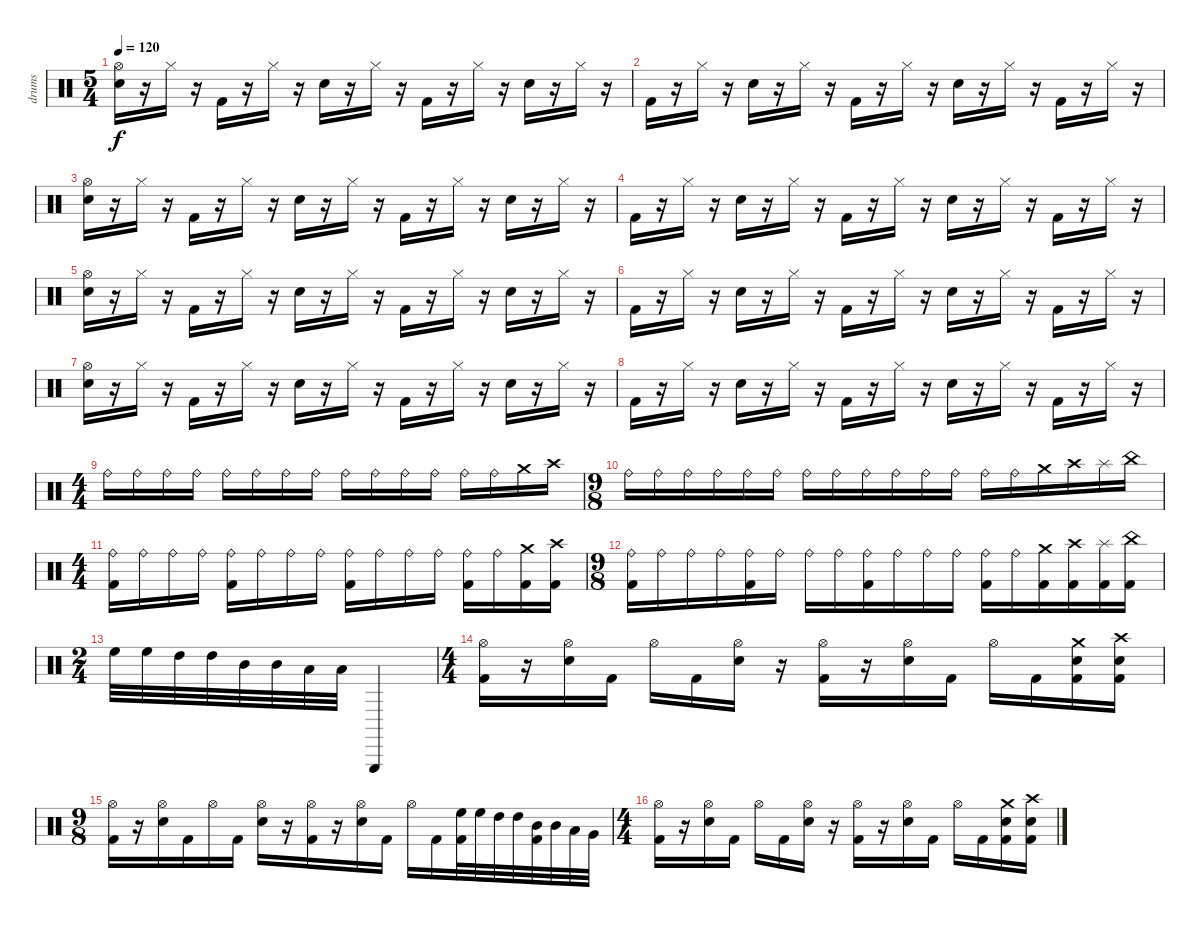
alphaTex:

\track ("drums" "drums") {instrument percussion}
\staff {score}
\articulation defaults
\ts (5 4)
\tempo 120
\clef neutral
\ks c
("Hi-Hat (open)" "Snare (hit) 2").16{dy f} r.16 "Hi-Hat (closed)".16 r.16 "Kick (hit) 2".16 r.16 "Hi-Hat (closed)".16 r.16 "Snare (hit) 2".16 r.16 "Hi-Hat (closed)".16 r.16 "Kick (hit) 2".16 r.16 "Hi-Hat (closed)".16 r.16 "Snare (hit) 2".16 r.16 "Hi-Hat (closed)".16 r.16 |
"Kick (hit) 2".16 r.16 "Hi-Hat (closed)".16 r.16 "Snare (hit) 2".16 r.16 "Hi-Hat (closed)".16 r.16 "Kick (hit) 2".16 r.16 "Hi-Hat (closed)".16 r.16 "Snare (hit) 2".16 r.16 "Hi-Hat (closed)".16 r.16 "Kick (hit) 2".16 r.16 "Hi-Hat (closed)".16 r.16 |
("Hi-Hat (open)" "Snare (hit) 2").16 r.16 "Hi-Hat (closed)".16 r.16 "Kick (hit) 2".16 r.16 "Hi-Hat (closed)".16 r.16 "Snare (hit) 2".16 r.16 "Hi-Hat (closed)".16 r.16 "Kick (hit) 2".16 r.16 "Hi-Hat (closed)".16 r.16 "Snare (hit) 2".16 r.16 "Hi-Hat (closed)".16 r.16 |
"Kick (hit) 2".16 r.16 "Hi-Hat (closed)".16 r.16 "Snare (hit) 2".16 r.16 "Hi-Hat (closed)".16 r.16 "Kick (hit) 2".16 r.16 "Hi-Hat (closed)".16 r.16 "Snare (hit) 2".16 r.16 "Hi-Hat (closed)".16 r.16 "Kick (hit) 2".16 r.16 "Hi-Hat (closed)".16 r.16 |
("Hi-Hat (open)" "Snare (hit) 2").16 r.16 "Hi-Hat (closed)".16 r.16 "Kick (hit) 2".16 r.16 "Hi-Hat (closed)".16 r.16 "Snare (hit) 2".16 r.16 "Hi-Hat (closed)".16 r.16 "Kick (hit) 2".16 r.16 "Hi-Hat (closed)".16 r.16 "Snare (hit) 2".16 r.16 "Hi-Hat (closed)".16 r.16 |
"Kick (hit) 2".16 r.16 "Hi-Hat (closed)".16 r.16 "Snare (hit) 2".16 r.16 "Hi-Hat (closed)".16 r.16 "Kick (hit) 2".16 r.16 "Hi-Hat (closed)".16 r.16 "Snare (hit) 2".16 r.16 "Hi-Hat (closed)".16 r.16 "Kick (hit) 2".16 r.16 "Hi-Hat (closed)".16 r.16 |
("Hi-Hat (open)" "Snare (hit) 2").16 r.16 "Hi-Hat (closed)".16 r.16 "Kick (hit) 2".16 r.16 "Hi-Hat (closed)".16 r.16 "Snare (hit) 2".16 r.16 "Hi-Hat (closed)".16 r.16 "Kick (hit) 2".16 r.16 "Hi-Hat (closed)".16 r.16 "Snare (hit) 2".16 r.16 "Hi-Hat (closed)".16 r.16 |
"Kick (hit) 2".16 r.16 "Hi-Hat (closed)".16 r.16 "Snare (hit) 2".16 r.16 "Hi-Hat (closed)".16 r.16 "Kick (hit) 2".16 r.16 "Hi-Hat (closed)".16 r.16 "Snare (hit) 2".16 r.16 "Hi-Hat (closed)".16 r.16 "Kick (hit) 2".16 r.16 "Hi-Hat (closed)".16 r.16 |
\ts (4 4)
"Ride (bell)".16 "Ride (bell)".16 "Ride (bell)".16 "Ride (bell)".16 "Ride (bell)".16 "Ride (bell)".16 "Ride (bell)".16 "Ride (bell)".16 "Ride (bell)".16 "Ride (bell)".16 "Ride (bell)".16 "Ride (bell)".16 "Ride (bell)".16 "Ride (bell)".16 "Crash medium (hit)".16 "Crash high (hit)".16 |
\ts (9 8)
"Ride (bell)".16 "Ride (bell)".16 "Ride (bell)".16 "Ride (bell)".16 "Ride (bell)".16 "Ride (bell)".16 "Ride (bell)".16 "Ride (bell)".16 "Ride (bell)".16 "Ride (bell)".16 "Ride (bell)".16 "Ride (bell)".16 "Ride (bell)".16 "Ride (bell)".16 "Crash medium (hit)".16 "Crash high (hit)".16 "Splash (hit)".16 "China (hit)".16 |
\ts (4 4)
("Ride (bell)" "Kick (hit) 2").16 "Ride (bell)".16 "Ride (bell)".16 "Ride (bell)".16 ("Ride (bell)" "Kick (hit) 2").16 "Ride (bell)".16 "Ride (bell)".16 "Ride (bell)".16 ("Ride (bell)" "Kick (hit) 2").16 "Ride (bell)".16 "Ride (bell)".16 "Ride (bell)".16 ("Ride (bell)" "Kick (hit) 2").16 "Ride (bell)".16 ("Crash medium (hit)" "Kick (hit) 2").16 ("Crash high (hit)" "Kick (hit) 2").16 |
\ts (9 8)
("Ride (bell)" "Kick (hit) 2").16 "Ride (bell)".16 "Ride (bell)".16 "Ride (bell)".16 ("Ride (bell)" "Kick (hit) 2").16 "Ride (bell)".16 "Ride (bell)".16 "Ride (bell)".16 ("Ride (bell)" "Kick (hit) 2").16 "Ride (bell)".16 "Ride (bell)".16 "Ride (bell)".16 ("Ride (bell)" "Kick (hit) 2").16 "Ride (bell)".16 ("Crash medium (hit)" "Kick (hit) 2").16 ("Crash high (hit)" "Kick (hit) 2").16 ("Splash (hit)" "Kick (hit) 2").16 ("China (hit)" "Kick (hit) 2").16 |
\ts (2 4)
"High Floor Tom (hit)".32 "High Floor Tom (hit)".32 "High Tom (hit)".32 "High Tom (hit)".32 "Mid Tom (hit)".32 "Mid Tom (hit)".32 "Low Tom (hit)".32 "Low Tom (hit)".32 "Triangle (hit)".4 |
\ts (4 4)
("Hi-Hat (open)" "Kick (hit) 2").16 r.16 ("Hi-Hat (open)" "Snare (hit) 2").16 "Kick (hit) 2".16 "Hi-Hat (open)".16 "Kick (hit) 2".16 ("Hi-Hat (open)" "Snare (hit) 2").16 r.16 ("Hi-Hat (open)" "Kick (hit) 2").16 r.16 ("Hi-Hat (open)" "Snare (hit) 2").16 "Kick (hit) 2".16 "Hi-Hat (open)".16 "Kick (hit) 2".16 ("Crash medium (hit)" "Snare (hit) 2" "Kick (hit) 2").16 ("Crash high (hit)" "Snare (hit) 2" "Kick (hit) 2").16 |
\ts (9 8)
("Hi-Hat (open)" "Kick (hit) 2").16 r.16 ("Hi-Hat (open)" "Snare (hit) 2").16 "Kick (hit) 2".16 "Hi-Hat (open)".16 "Kick (hit) 2".16 ("Hi-Hat (open)" "Snare (hit) 2").16 r.16 ("Hi-Hat (open)" "Kick (hit) 2").16 r.16 ("Hi-Hat (open)" "Snare (hit) 2").16 "Kick (hit) 2".16 "Hi-Hat (open)".16 "Kick (hit) 2".16 ("High Floor Tom (hit)" "Kick (hit) 2").32 "High Floor Tom (hit)".32 "High Tom (hit)".32 "High Tom (hit)".32 ("Mid Tom (hit)" "Kick (hit) 2").32 "Mid Tom (hit)".32 "Low Tom (hit)".32 "Very Low Tom (hit)".32 |
\ts (4 4)
("Hi-Hat (open)" "Kick (hit) 2").16 r.16 ("Hi-Hat (open)" "Snare (hit) 2").16 "Kick (hit) 2".16 "Hi-Hat (open)".16 "Kick (hit) 2".16 ("Hi-Hat (open)" "Snare (hit) 2").16 r.16 ("Hi-Hat (open)" "Kick (hit) 2").16 r.16 ("Hi-Hat (open)" "Snare (hit) 2").16 "Kick (hit) 2".16 "Hi-Hat (open)".16 "Kick (hit) 2".16 ("Crash medium (hit)" "Snare (hit) 2" "Kick (hit) 2").16 ("Crash high (hit)" "Snare (hit) 2" "Kick (hit) 2").16
